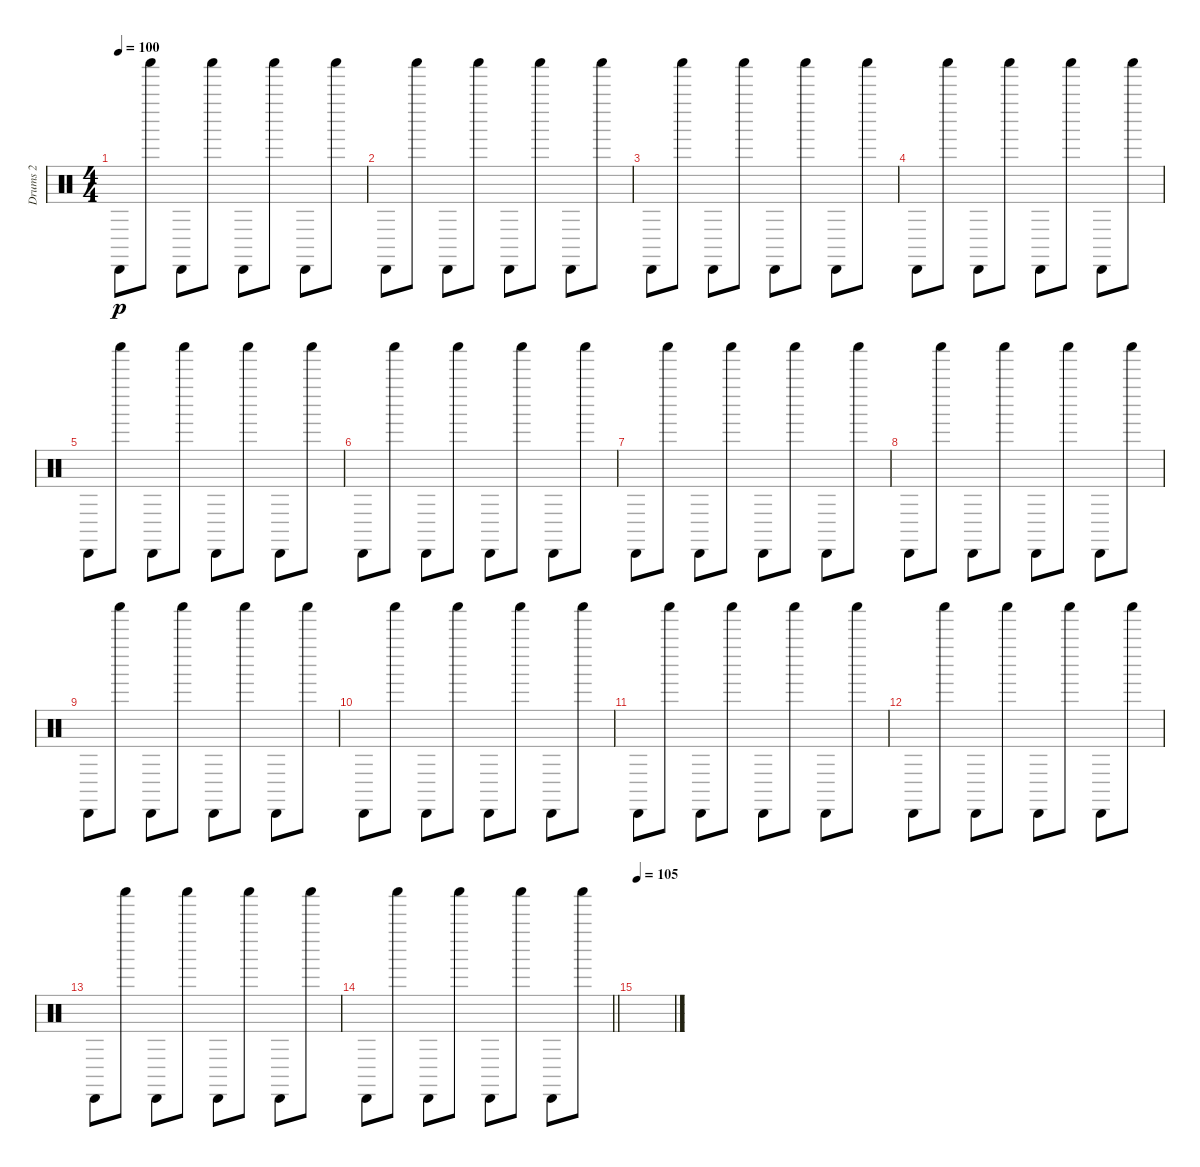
\track ("Drums 2" "Drums 2") {instrument percussion}
\staff {score}
\articulation defaults
\ts (4 4)
\tempo 100
\clef neutral
\ks c "Cabasa (hit)".8{dy p} "Shaker (hit)".8 "Cabasa (hit)".8 "Shaker (hit)".8 "Cabasa (hit)".8 "Shaker (hit)".8 "Cabasa (hit)".8 "Shaker (hit)".8
|
"Cabasa (hit)".8 "Shaker (hit)".8 "Cabasa (hit)".8 "Shaker (hit)".8 "Cabasa (hit)".8 "Shaker (hit)".8 "Cabasa (hit)".8 "Shaker (hit)".8 |
"Cabasa (hit)".8 "Shaker (hit)".8 "Cabasa (hit)".8 "Shaker (hit)".8 "Cabasa (hit)".8 "Shaker (hit)".8 "Cabasa (hit)".8 "Shaker (hit)".8 |
"Cabasa (hit)".8 "Shaker (hit)".8 "Cabasa (hit)".8 "Shaker (hit)".8 "Cabasa (hit)".8 "Shaker (hit)".8 "Cabasa (hit)".8 "Shaker (hit)".8 |
"Cabasa (hit)".8 "Shaker (hit)".8 "Cabasa (hit)".8 "Shaker (hit)".8 "Cabasa (hit)".8 "Shaker (hit)".8 "Cabasa (hit)".8 "Shaker (hit)".8 |
"Cabasa (hit)".8 "Shaker (hit)".8 "Cabasa (hit)".8 "Shaker (hit)".8 "Cabasa (hit)".8 "Shaker (hit)".8 "Cabasa (hit)".8 "Shaker (hit)".8 |
"Cabasa (hit)".8 "Shaker (hit)".8 "Cabasa (hit)".8 "Shaker (hit)".8 "Cabasa (hit)".8 "Shaker (hit)".8 "Cabasa (hit)".8 "Shaker (hit)".8 |
"Cabasa (hit)".8 "Shaker (hit)".8 "Cabasa (hit)".8 "Shaker (hit)".8 "Cabasa (hit)".8 "Shaker (hit)".8 "Cabasa (hit)".8 "Shaker (hit)".8 |
"Cabasa (hit)".8 "Shaker (hit)".8 "Cabasa (hit)".8 "Shaker (hit)".8 "Cabasa (hit)".8 "Shaker (hit)".8 "Cabasa (hit)".8 "Shaker (hit)".8 |
"Cabasa (hit)".8 "Shaker (hit)".8 "Cabasa (hit)".8 "Shaker (hit)".8 "Cabasa (hit)".8 "Shaker (hit)".8 "Cabasa (hit)".8 "Shaker (hit)".8 |
"Cabasa (hit)".8 "Shaker (hit)".8 "Cabasa (hit)".8 "Shaker (hit)".8 "Cabasa (hit)".8 "Shaker (hit)".8 "Cabasa (hit)".8 "Shaker (hit)".8 |
"Cabasa (hit)".8 "Shaker (hit)".8 "Cabasa (hit)".8 "Shaker (hit)".8 "Cabasa (hit)".8 "Shaker (hit)".8 "Cabasa (hit)".8 "Shaker (hit)".8 |
"Cabasa (hit)".8 "Shaker (hit)".8 "Cabasa (hit)".8 "Shaker (hit)".8 "Cabasa (hit)".8 "Shaker (hit)".8 "Cabasa (hit)".8 "Shaker (hit)".8 |
\barLineRight lightlight "Cabasa (hit)".8 "Shaker (hit)".8 "Cabasa (hit)".8 "Shaker (hit)".8 "Cabasa (hit)".8 "Shaker (hit)".8 "Cabasa (hit)".8 "Shaker (hit)".8
|
\section ("" "")
\tempo 105
